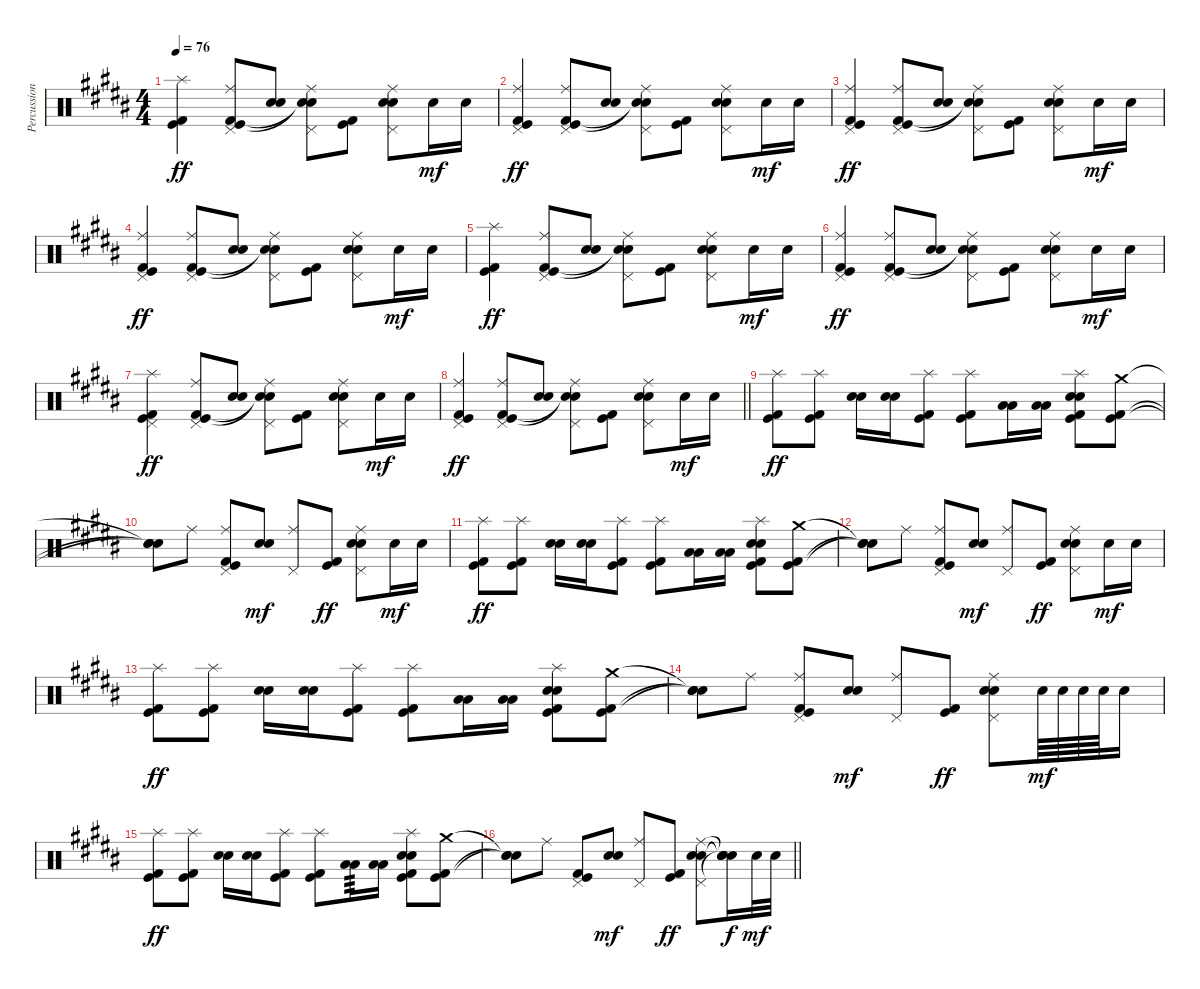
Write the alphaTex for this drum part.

\track ("Percussion" "Percussion") {instrument percussion}
\staff {score}
\articulation defaults
\ts (4 4)
\tempo 76
\clef neutral
\ks b
("Splash (hit)" "Kick (hit)" "Kick (hit) 2").4{dy ff} ("Ride (middle)" "Pedal Hi-Hat (hit)" "Kick (hit)" "Kick (hit) 2").8 ("Snare (hit) 2" "Snare (hit) 2").8 ("Ride (middle)" "Pedal Hi-Hat (hit)" "Snare (hit) 2"{t} "Snare (hit) 2"{t}).8 ("Kick (hit)" "Kick (hit) 2").8 ("Ride (middle)" "Pedal Hi-Hat (hit)" "Snare (hit) 2" "Snare (hit) 2").8 "Snare (hit) 2".16{dy mf} "Snare (hit) 2".16 |
("Ride (middle)" "Pedal Hi-Hat (hit)" "Kick (hit)" "Kick (hit) 2").4{dy ff} ("Ride (middle)" "Pedal Hi-Hat (hit)" "Kick (hit)" "Kick (hit) 2").8 ("Snare (hit) 2" "Snare (hit) 2").8 ("Ride (middle)" "Pedal Hi-Hat (hit)" "Snare (hit) 2"{t} "Snare (hit) 2"{t}).8 ("Kick (hit)" "Kick (hit) 2").8 ("Ride (middle)" "Pedal Hi-Hat (hit)" "Snare (hit) 2" "Snare (hit) 2").8 "Snare (hit) 2".16{dy mf} "Snare (hit) 2".16 |
("Ride (middle)" "Pedal Hi-Hat (hit)" "Kick (hit)" "Kick (hit) 2").4{dy ff} ("Ride (middle)" "Pedal Hi-Hat (hit)" "Kick (hit)" "Kick (hit) 2").8 ("Snare (hit) 2" "Snare (hit) 2").8 ("Ride (middle)" "Pedal Hi-Hat (hit)" "Snare (hit) 2"{t} "Snare (hit) 2"{t}).8 ("Kick (hit)" "Kick (hit) 2").8 ("Ride (middle)" "Pedal Hi-Hat (hit)" "Snare (hit) 2" "Snare (hit) 2").8 "Snare (hit) 2".16{dy mf} "Snare (hit) 2".16 |
("Ride (middle)" "Pedal Hi-Hat (hit)" "Kick (hit)" "Kick (hit) 2").4{dy ff} ("Ride (middle)" "Pedal Hi-Hat (hit)" "Kick (hit)" "Kick (hit) 2").8 ("Snare (hit) 2" "Snare (hit) 2").8 ("Ride (middle)" "Pedal Hi-Hat (hit)" "Snare (hit) 2"{t} "Snare (hit) 2"{t}).8 ("Kick (hit)" "Kick (hit) 2").8 ("Ride (middle)" "Pedal Hi-Hat (hit)" "Snare (hit) 2" "Snare (hit) 2").8 "Snare (hit) 2".16{dy mf} "Snare (hit) 2".16 |
("Splash (hit)" "Kick (hit)" "Kick (hit) 2").4{dy ff} ("Ride (middle)" "Pedal Hi-Hat (hit)" "Kick (hit)" "Kick (hit) 2").8 ("Snare (hit) 2" "Snare (hit) 2").8 ("Ride (middle)" "Pedal Hi-Hat (hit)" "Snare (hit) 2"{t} "Snare (hit) 2"{t}).8 ("Kick (hit)" "Kick (hit) 2").8 ("Ride (middle)" "Pedal Hi-Hat (hit)" "Snare (hit) 2" "Snare (hit) 2").8 "Snare (hit) 2".16{dy mf} "Snare (hit) 2".16 |
("Ride (middle)" "Pedal Hi-Hat (hit)" "Kick (hit)" "Kick (hit) 2").4{dy ff} ("Ride (middle)" "Pedal Hi-Hat (hit)" "Kick (hit)" "Kick (hit) 2").8 ("Snare (hit) 2" "Snare (hit) 2").8 ("Ride (middle)" "Pedal Hi-Hat (hit)" "Snare (hit) 2"{t} "Snare (hit) 2"{t}).8 ("Kick (hit)" "Kick (hit) 2").8 ("Ride (middle)" "Pedal Hi-Hat (hit)" "Snare (hit) 2" "Snare (hit) 2").8 "Snare (hit) 2".16{dy mf} "Snare (hit) 2".16 |
("Splash (hit)" "Pedal Hi-Hat (hit)" "Kick (hit)" "Kick (hit) 2").4{dy ff} ("Ride (middle)" "Pedal Hi-Hat (hit)" "Kick (hit)" "Kick (hit) 2").8 ("Snare (hit) 2" "Snare (hit) 2").8 ("Ride (middle)" "Pedal Hi-Hat (hit)" "Snare (hit) 2"{t} "Snare (hit) 2"{t}).8 ("Kick (hit)" "Kick (hit) 2").8 ("Ride (middle)" "Pedal Hi-Hat (hit)" "Snare (hit) 2" "Snare (hit) 2").8 "Snare (hit) 2".16{dy mf} "Snare (hit) 2".16 |
\barLineRight lightlight
("Ride (middle)" "Pedal Hi-Hat (hit)" "Kick (hit)" "Kick (hit) 2").4{dy ff} ("Ride (middle)" "Pedal Hi-Hat (hit)" "Kick (hit)" "Kick (hit) 2").8 ("Snare (hit) 2" "Snare (hit) 2").8 ("Ride (middle)" "Pedal Hi-Hat (hit)" "Snare (hit) 2"{t} "Snare (hit) 2"{t}).8 ("Kick (hit)" "Kick (hit) 2").8 ("Ride (middle)" "Pedal Hi-Hat (hit)" "Snare (hit) 2" "Snare (hit) 2").8 "Snare (hit) 2".16{dy mf} "Snare (hit) 2".16 |
("Splash (hit)" "Kick (hit)" "Kick (hit) 2").8{dy ff} ("Splash (hit)" "Kick (hit)" "Kick (hit) 2").8 ("Snare (hit) 2" "Snare (hit) 2").16 ("Snare (hit) 2" "Snare (hit) 2").16 ("Splash (hit)" "Kick (hit)" "Kick (hit) 2").8 ("Splash (hit)" "Kick (hit)" "Kick (hit) 2").8 ("Low Tom (hit)" "Low Tom (hit)").16 ("Low Tom (hit)" "Low Tom (hit)").16 ("Splash (hit)" "Snare (hit) 2" "Snare (hit) 2" "Kick (hit)" "Kick (hit) 2").8 ("Crash medium (hit)" "Kick (hit)" "Kick (hit) 2").8 |
("Snare (hit)"{t} "Snare (hit)"{t} "Snare (hit)"{t}).8 "Ride (middle)".8 ("Ride (middle)" "Pedal Hi-Hat (hit)" "Kick (hit)" "Kick (hit) 2").8 ("Snare (hit) 2" "Snare (hit) 2").8{dy mf} ("Ride (middle)" "Pedal Hi-Hat (hit)").8 ("Kick (hit)" "Kick (hit) 2").8{dy ff} ("Ride (middle)" "Pedal Hi-Hat (hit)" "Snare (hit) 2" "Snare (hit) 2").8 "Snare (hit) 2".16{dy mf} "Snare (hit) 2".16 |
("Splash (hit)" "Kick (hit)" "Kick (hit) 2").8{dy ff} ("Splash (hit)" "Kick (hit)" "Kick (hit) 2").8 ("Snare (hit) 2" "Snare (hit) 2").16 ("Snare (hit) 2" "Snare (hit) 2").16 ("Splash (hit)" "Kick (hit)" "Kick (hit) 2").8 ("Splash (hit)" "Kick (hit)" "Kick (hit) 2").8 ("Low Tom (hit)" "Low Tom (hit)").16 ("Low Tom (hit)" "Low Tom (hit)").16 ("Splash (hit)" "Snare (hit) 2" "Snare (hit) 2" "Kick (hit)" "Kick (hit) 2").8 ("Crash medium (hit)" "Kick (hit)" "Kick (hit) 2").8 |
("Snare (hit)"{t} "Snare (hit)"{t} "Snare (hit)"{t}).8 "Ride (middle)".8 ("Ride (middle)" "Pedal Hi-Hat (hit)" "Kick (hit)" "Kick (hit) 2").8 ("Snare (hit) 2" "Snare (hit) 2").8{dy mf} ("Ride (middle)" "Pedal Hi-Hat (hit)").8 ("Kick (hit)" "Kick (hit) 2").8{dy ff} ("Ride (middle)" "Pedal Hi-Hat (hit)" "Snare (hit) 2" "Snare (hit) 2").8 "Snare (hit) 2".16{dy mf} "Snare (hit) 2".16 |
("Splash (hit)" "Kick (hit)" "Kick (hit) 2").8{dy ff} ("Splash (hit)" "Kick (hit)" "Kick (hit) 2").8 ("Snare (hit) 2" "Snare (hit) 2").16 ("Snare (hit) 2" "Snare (hit) 2").16 ("Splash (hit)" "Kick (hit)" "Kick (hit) 2").8 ("Splash (hit)" "Kick (hit)" "Kick (hit) 2").8 ("Low Tom (hit)" "Low Tom (hit)").16 ("Low Tom (hit)" "Low Tom (hit)").16 ("Splash (hit)" "Snare (hit) 2" "Snare (hit) 2" "Kick (hit)" "Kick (hit) 2").8 ("Crash medium (hit)" "Kick (hit)" "Kick (hit) 2").8 |
("Snare (hit)"{t} "Snare (hit)"{t} "Snare (hit)"{t}).8 "Ride (middle)".8 ("Ride (middle)" "Pedal Hi-Hat (hit)" "Kick (hit)" "Kick (hit) 2").8 ("Snare (hit) 2" "Snare (hit) 2").8{dy mf} ("Ride (middle)" "Pedal Hi-Hat (hit)").8 ("Kick (hit)" "Kick (hit) 2").8{dy ff} ("Ride (middle)" "Pedal Hi-Hat (hit)" "Snare (hit) 2" "Snare (hit) 2").8 "Snare (hit) 2".64{dy mf} "Snare (hit) 2".64 "Snare (hit) 2".64 "Snare (hit) 2".64 "Snare (hit) 2".16 |
("Splash (hit)" "Kick (hit)" "Kick (hit) 2").8{dy ff} ("Splash (hit)" "Kick (hit)" "Kick (hit) 2").8 ("Snare (hit) 2" "Snare (hit) 2").16 ("Snare (hit) 2" "Snare (hit) 2").16 ("Splash (hit)" "Kick (hit)" "Kick (hit) 2").8 ("Splash (hit)" "Kick (hit)" "Kick (hit) 2").8 ("Low Tom (hit)" "Low Tom (hit)").16{tp 3} ("Low Tom (hit)" "Low Tom (hit)").16 ("Splash (hit)" "Snare (hit) 2" "Snare (hit) 2" "Kick (hit)" "Kick (hit) 2").8 ("Crash medium (hit)" "Kick (hit)" "Kick (hit) 2").8 |
\barLineRight lightlight
("Snare (hit)"{t} "Snare (hit)"{t} "Snare (hit)"{t}).8 "Ride (middle)".8 ("Pedal Hi-Hat (hit)" "Kick (hit)" "Kick (hit) 2").8 ("Snare (hit) 2" "Snare (hit) 2").8{dy mf} ("Ride (middle)" "Pedal Hi-Hat (hit)").8 ("Kick (hit)" "Kick (hit) 2").8{dy ff} ("Ride (middle)" "Pedal Hi-Hat (hit)" "Snare (hit) 2" "Snare (hit) 2").8 ("Snare (hit)"{t} "Snare (hit)"{t} "Snare (hit) 2"{t} "Snare (hit)"{t}).16{dy f} "Snare (hit) 2".32{dy mf} "Snare (hit) 2".32
